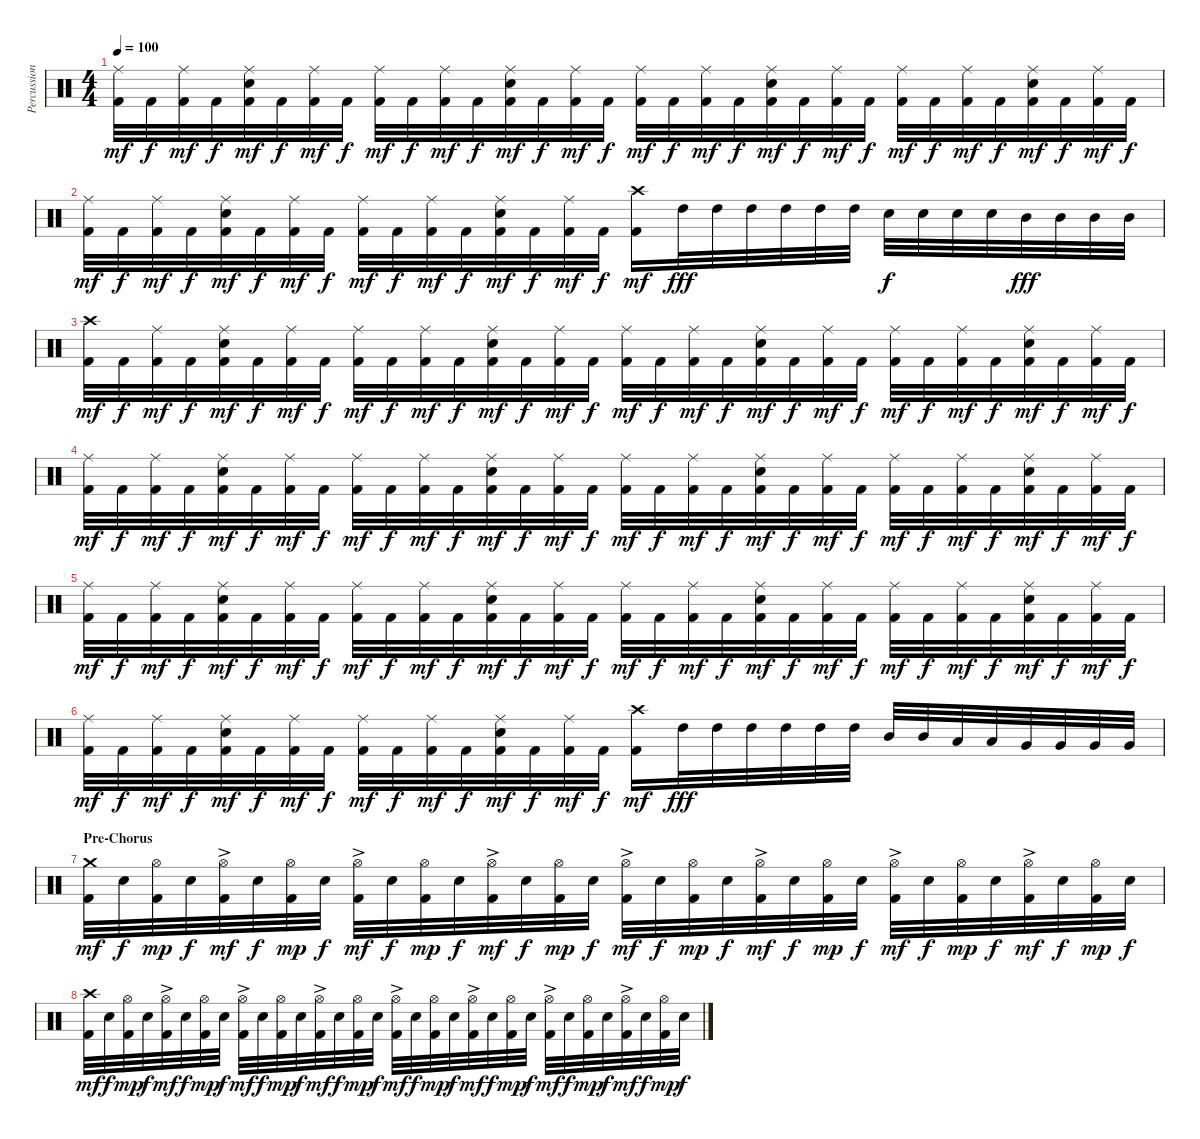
\track ("Percussion" "Percussion") {instrument percussion}
\staff {score}
\articulation defaults
\ts (4 4)
\tempo 100
\clef neutral
\ks c
("Ride (middle)" "Kick (hit) 2").32{dy mf} "Kick (hit) 2".32{dy f} ("Ride (middle)" "Kick (hit) 2").32{dy mf} "Kick (hit) 2".32{dy f} ("Ride (middle)" "Electric Snare (hit)" "Kick (hit) 2").32{dy mf} "Kick (hit) 2".32{dy f} ("Ride (middle)" "Kick (hit) 2").32{dy mf} "Kick (hit) 2".32{dy f} ("Ride (middle)" "Kick (hit) 2").32{dy mf} "Kick (hit) 2".32{dy f} ("Ride (middle)" "Kick (hit) 2").32{dy mf} "Kick (hit) 2".32{dy f} ("Ride (middle)" "Electric Snare (hit)" "Kick (hit) 2").32{dy mf} "Kick (hit) 2".32{dy f} ("Ride (middle)" "Kick (hit) 2").32{dy mf} "Kick (hit) 2".32{dy f} ("Ride (middle)" "Kick (hit) 2").32{dy mf} "Kick (hit) 2".32{dy f} ("Ride (middle)" "Kick (hit) 2").32{dy mf} "Kick (hit) 2".32{dy f} ("Ride (middle)" "Electric Snare (hit)" "Kick (hit) 2").32{dy mf} "Kick (hit) 2".32{dy f} ("Ride (middle)" "Kick (hit) 2").32{dy mf} "Kick (hit) 2".32{dy f} ("Ride (middle)" "Kick (hit) 2").32{dy mf} "Kick (hit) 2".32{dy f} ("Ride (middle)" "Kick (hit) 2").32{dy mf} "Kick (hit) 2".32{dy f} ("Ride (middle)" "Electric Snare (hit)" "Kick (hit) 2").32{dy mf} "Kick (hit) 2".32{dy f} ("Ride (middle)" "Kick (hit) 2").32{dy mf} "Kick (hit) 2".32{dy f} |
("Ride (middle)" "Kick (hit) 2").32{dy mf} "Kick (hit) 2".32{dy f} ("Ride (middle)" "Kick (hit) 2").32{dy mf} "Kick (hit) 2".32{dy f} ("Ride (middle)" "Electric Snare (hit)" "Kick (hit) 2").32{dy mf} "Kick (hit) 2".32{dy f} ("Ride (middle)" "Kick (hit) 2").32{dy mf} "Kick (hit) 2".32{dy f} ("Ride (middle)" "Kick (hit) 2").32{dy mf} "Kick (hit) 2".32{dy f} ("Ride (middle)" "Kick (hit) 2").32{dy mf} "Kick (hit) 2".32{dy f} ("Ride (middle)" "Electric Snare (hit)" "Kick (hit) 2").32{dy mf} "Kick (hit) 2".32{dy f} ("Ride (middle)" "Kick (hit) 2").32{dy mf} "Kick (hit) 2".32{dy f} ("Crash high (hit)" "Kick (hit) 2").16{dy mf} "High Tom (hit)".32{dy fff} "High Tom (hit)".32 "High Tom (hit)".32 "High Tom (hit)".32 "High Tom (hit)".32 "High Tom (hit)".32 "Electric Snare (hit)".32{dy f} "Electric Snare (hit)".32 "Electric Snare (hit)".32 "Electric Snare (hit)".32 "Mid Tom (hit)".32{dy fff} "Mid Tom (hit)".32 "Mid Tom (hit)".32 "Mid Tom (hit)".32 |
("Crash high (hit)" "Kick (hit) 2").32{dy mf} "Kick (hit) 2".32{dy f} ("Ride (middle)" "Kick (hit) 2").32{dy mf} "Kick (hit) 2".32{dy f} ("Ride (middle)" "Electric Snare (hit)" "Kick (hit) 2").32{dy mf} "Kick (hit) 2".32{dy f} ("Ride (middle)" "Kick (hit) 2").32{dy mf} "Kick (hit) 2".32{dy f} ("Ride (middle)" "Kick (hit) 2").32{dy mf} "Kick (hit) 2".32{dy f} ("Ride (middle)" "Kick (hit) 2").32{dy mf} "Kick (hit) 2".32{dy f} ("Ride (middle)" "Electric Snare (hit)" "Kick (hit) 2").32{dy mf} "Kick (hit) 2".32{dy f} ("Ride (middle)" "Kick (hit) 2").32{dy mf} "Kick (hit) 2".32{dy f} ("Ride (middle)" "Kick (hit) 2").32{dy mf} "Kick (hit) 2".32{dy f} ("Ride (middle)" "Kick (hit) 2").32{dy mf} "Kick (hit) 2".32{dy f} ("Ride (middle)" "Electric Snare (hit)" "Kick (hit) 2").32{dy mf} "Kick (hit) 2".32{dy f} ("Ride (middle)" "Kick (hit) 2").32{dy mf} "Kick (hit) 2".32{dy f} ("Ride (middle)" "Kick (hit) 2").32{dy mf} "Kick (hit) 2".32{dy f} ("Ride (middle)" "Kick (hit) 2").32{dy mf} "Kick (hit) 2".32{dy f} ("Ride (middle)" "Electric Snare (hit)" "Kick (hit) 2").32{dy mf} "Kick (hit) 2".32{dy f} ("Ride (middle)" "Kick (hit) 2").32{dy mf} "Kick (hit) 2".32{dy f} |
("Ride (middle)" "Kick (hit) 2").32{dy mf} "Kick (hit) 2".32{dy f} ("Ride (middle)" "Kick (hit) 2").32{dy mf} "Kick (hit) 2".32{dy f} ("Ride (middle)" "Electric Snare (hit)" "Kick (hit) 2").32{dy mf} "Kick (hit) 2".32{dy f} ("Ride (middle)" "Kick (hit) 2").32{dy mf} "Kick (hit) 2".32{dy f} ("Ride (middle)" "Kick (hit) 2").32{dy mf} "Kick (hit) 2".32{dy f} ("Ride (middle)" "Kick (hit) 2").32{dy mf} "Kick (hit) 2".32{dy f} ("Ride (middle)" "Electric Snare (hit)" "Kick (hit) 2").32{dy mf} "Kick (hit) 2".32{dy f} ("Ride (middle)" "Kick (hit) 2").32{dy mf} "Kick (hit) 2".32{dy f} ("Ride (middle)" "Kick (hit) 2").32{dy mf} "Kick (hit) 2".32{dy f} ("Ride (middle)" "Kick (hit) 2").32{dy mf} "Kick (hit) 2".32{dy f} ("Ride (middle)" "Electric Snare (hit)" "Kick (hit) 2").32{dy mf} "Kick (hit) 2".32{dy f} ("Ride (middle)" "Kick (hit) 2").32{dy mf} "Kick (hit) 2".32{dy f} ("Ride (middle)" "Kick (hit) 2").32{dy mf} "Kick (hit) 2".32{dy f} ("Ride (middle)" "Kick (hit) 2").32{dy mf} "Kick (hit) 2".32{dy f} ("Ride (middle)" "Electric Snare (hit)" "Kick (hit) 2").32{dy mf} "Kick (hit) 2".32{dy f} ("Ride (middle)" "Kick (hit) 2").32{dy mf} "Kick (hit) 2".32{dy f} |
("Ride (middle)" "Kick (hit) 2").32{dy mf} "Kick (hit) 2".32{dy f} ("Ride (middle)" "Kick (hit) 2").32{dy mf} "Kick (hit) 2".32{dy f} ("Ride (middle)" "Electric Snare (hit)" "Kick (hit) 2").32{dy mf} "Kick (hit) 2".32{dy f} ("Ride (middle)" "Kick (hit) 2").32{dy mf} "Kick (hit) 2".32{dy f} ("Ride (middle)" "Kick (hit) 2").32{dy mf} "Kick (hit) 2".32{dy f} ("Ride (middle)" "Kick (hit) 2").32{dy mf} "Kick (hit) 2".32{dy f} ("Ride (middle)" "Electric Snare (hit)" "Kick (hit) 2").32{dy mf} "Kick (hit) 2".32{dy f} ("Ride (middle)" "Kick (hit) 2").32{dy mf} "Kick (hit) 2".32{dy f} ("Ride (middle)" "Kick (hit) 2").32{dy mf} "Kick (hit) 2".32{dy f} ("Ride (middle)" "Kick (hit) 2").32{dy mf} "Kick (hit) 2".32{dy f} ("Ride (middle)" "Electric Snare (hit)" "Kick (hit) 2").32{dy mf} "Kick (hit) 2".32{dy f} ("Ride (middle)" "Kick (hit) 2").32{dy mf} "Kick (hit) 2".32{dy f} ("Ride (middle)" "Kick (hit) 2").32{dy mf} "Kick (hit) 2".32{dy f} ("Ride (middle)" "Kick (hit) 2").32{dy mf} "Kick (hit) 2".32{dy f} ("Ride (middle)" "Electric Snare (hit)" "Kick (hit) 2").32{dy mf} "Kick (hit) 2".32{dy f} ("Ride (middle)" "Kick (hit) 2").32{dy mf} "Kick (hit) 2".32{dy f} |
("Ride (middle)" "Kick (hit) 2").32{dy mf} "Kick (hit) 2".32{dy f} ("Ride (middle)" "Kick (hit) 2").32{dy mf} "Kick (hit) 2".32{dy f} ("Ride (middle)" "Electric Snare (hit)" "Kick (hit) 2").32{dy mf} "Kick (hit) 2".32{dy f} ("Ride (middle)" "Kick (hit) 2").32{dy mf} "Kick (hit) 2".32{dy f} ("Ride (middle)" "Kick (hit) 2").32{dy mf} "Kick (hit) 2".32{dy f} ("Ride (middle)" "Kick (hit) 2").32{dy mf} "Kick (hit) 2".32{dy f} ("Ride (middle)" "Electric Snare (hit)" "Kick (hit) 2").32{dy mf} "Kick (hit) 2".32{dy f} ("Ride (middle)" "Kick (hit) 2").32{dy mf} "Kick (hit) 2".32{dy f} ("Crash high (hit)" "Kick (hit) 2").16{dy mf} "High Tom (hit)".32{dy fff} "High Tom (hit)".32 "High Tom (hit)".32 "High Tom (hit)".32 "High Tom (hit)".32 "High Tom (hit)".32 "Mid Tom (hit)".32 "Mid Tom (hit)".32 "Low Tom (hit)".32 "Low Tom (hit)".32 "Very Low Tom (hit)".32 "Very Low Tom (hit)".32 "Very Low Tom (hit)".32 "Very Low Tom (hit)".32 |
\section ("" "Pre-Chorus")
("Crash medium (hit)" "Kick (hit) 2").32{dy mf} "Electric Snare (hit)".32{dy f} ("Hi-Hat (open)" "Kick (hit) 2").32{dy mp} "Electric Snare (hit)".32{dy f} ("Hi-Hat (open)"{ac} "Kick (hit) 2").32{dy mf} "Electric Snare (hit)".32{dy f} ("Hi-Hat (open)" "Kick (hit) 2").32{dy mp} "Electric Snare (hit)".32{dy f} ("Hi-Hat (open)"{ac} "Kick (hit) 2").32{dy mf} "Electric Snare (hit)".32{dy f} ("Hi-Hat (open)" "Kick (hit) 2").32{dy mp} "Electric Snare (hit)".32{dy f} ("Hi-Hat (open)"{ac} "Kick (hit) 2").32{dy mf} "Electric Snare (hit)".32{dy f} ("Hi-Hat (open)" "Kick (hit) 2").32{dy mp} "Electric Snare (hit)".32{dy f} ("Hi-Hat (open)"{ac} "Kick (hit) 2").32{dy mf} "Electric Snare (hit)".32{dy f} ("Hi-Hat (open)" "Kick (hit) 2").32{dy mp} "Electric Snare (hit)".32{dy f} ("Hi-Hat (open)"{ac} "Kick (hit) 2").32{dy mf} "Electric Snare (hit)".32{dy f} ("Hi-Hat (open)" "Kick (hit) 2").32{dy mp} "Electric Snare (hit)".32{dy f} ("Hi-Hat (open)"{ac} "Kick (hit) 2").32{dy mf} "Electric Snare (hit)".32{dy f} ("Hi-Hat (open)" "Kick (hit) 2").32{dy mp} "Electric Snare (hit)".32{dy f} ("Hi-Hat (open)"{ac} "Kick (hit) 2").32{dy mf} "Electric Snare (hit)".32{dy f} ("Hi-Hat (open)" "Kick (hit) 2").32{dy mp} "Electric Snare (hit)".32{dy f} |
("Crash high (hit)" "Kick (hit) 2").32{dy mf} "Electric Snare (hit)".32{dy f} ("Hi-Hat (open)" "Kick (hit) 2").32{dy mp} "Electric Snare (hit)".32{dy f} ("Hi-Hat (open)"{ac} "Kick (hit) 2").32{dy mf} "Electric Snare (hit)".32{dy f} ("Hi-Hat (open)" "Kick (hit) 2").32{dy mp} "Electric Snare (hit)".32{dy f} ("Hi-Hat (open)"{ac} "Kick (hit) 2").32{dy mf} "Electric Snare (hit)".32{dy f} ("Hi-Hat (open)" "Kick (hit) 2").32{dy mp} "Electric Snare (hit)".32{dy f} ("Hi-Hat (open)"{ac} "Kick (hit) 2").32{dy mf} "Electric Snare (hit)".32{dy f} ("Hi-Hat (open)" "Kick (hit) 2").32{dy mp} "Electric Snare (hit)".32{dy f} ("Hi-Hat (open)"{ac} "Kick (hit) 2").32{dy mf} "Electric Snare (hit)".32{dy f} ("Hi-Hat (open)" "Kick (hit) 2").32{dy mp} "Electric Snare (hit)".32{dy f} ("Hi-Hat (open)"{ac} "Kick (hit) 2").32{dy mf} "Electric Snare (hit)".32{dy f} ("Hi-Hat (open)" "Kick (hit) 2").32{dy mp} "Electric Snare (hit)".32{dy f} ("Hi-Hat (open)"{ac} "Kick (hit) 2").32{dy mf} "Electric Snare (hit)".32{dy f} ("Hi-Hat (open)" "Kick (hit) 2").32{dy mp} "Electric Snare (hit)".32{dy f} ("Hi-Hat (open)"{ac} "Kick (hit) 2").32{dy mf} "Electric Snare (hit)".32{dy f} ("Hi-Hat (open)" "Kick (hit) 2").32{dy mp} "Electric Snare (hit)".32{dy f}
